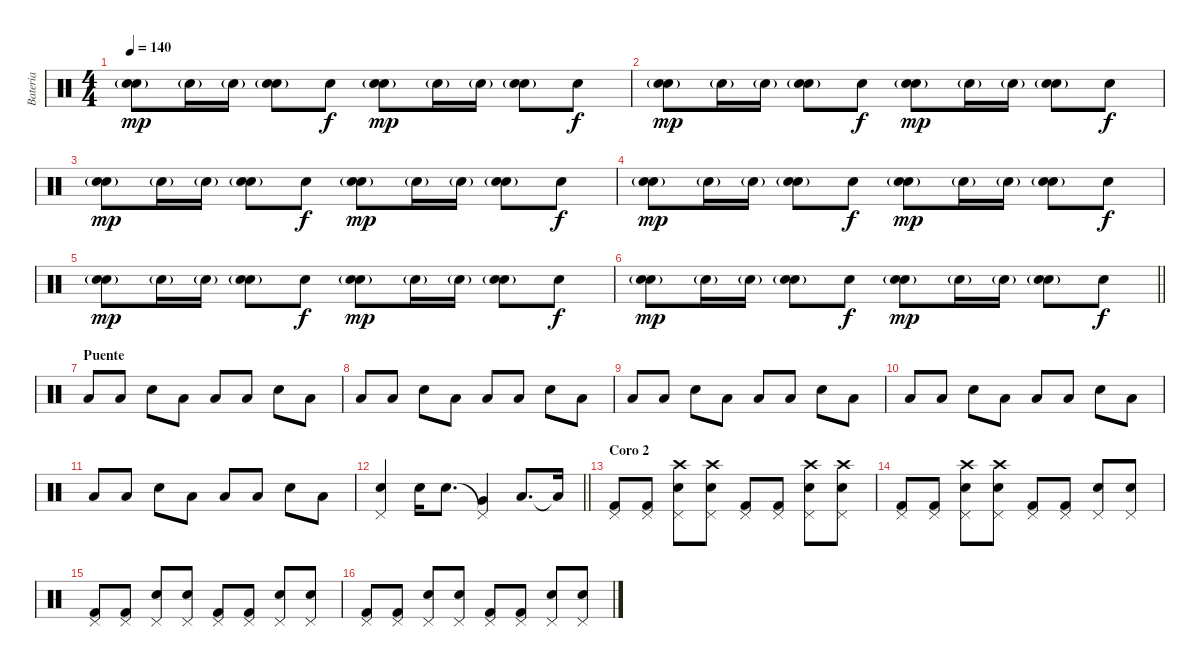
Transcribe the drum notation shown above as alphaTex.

\track ("Bateria" "Bateria") {instrument percussion}
\staff {score}
\articulation defaults
\ts (4 4)
\tempo 140
\clef neutral
\ks c
("Snare (hit) 2" "Electric Snare (hit)"{g}).8{dy mp} "Electric Snare (hit)"{g}.16 "Electric Snare (hit)"{g}.16 ("Snare (hit) 2" "Electric Snare (hit)"{g}).8 "Electric Snare (hit)".8{dy f} ("Snare (hit) 2" "Electric Snare (hit)"{g}).8{dy mp} "Electric Snare (hit)"{g}.16 "Electric Snare (hit)"{g}.16 ("Snare (hit) 2" "Electric Snare (hit)"{g}).8 "Electric Snare (hit)".8{dy f} |
("Snare (hit) 2" "Electric Snare (hit)"{g}).8{dy mp} "Electric Snare (hit)"{g}.16 "Electric Snare (hit)"{g}.16 ("Snare (hit) 2" "Electric Snare (hit)"{g}).8 "Electric Snare (hit)".8{dy f} ("Snare (hit) 2" "Electric Snare (hit)"{g}).8{dy mp} "Electric Snare (hit)"{g}.16 "Electric Snare (hit)"{g}.16 ("Snare (hit) 2" "Electric Snare (hit)"{g}).8 "Electric Snare (hit)".8{dy f} |
("Snare (hit) 2" "Electric Snare (hit)"{g}).8{dy mp} "Electric Snare (hit)"{g}.16 "Electric Snare (hit)"{g}.16 ("Snare (hit) 2" "Electric Snare (hit)"{g}).8 "Electric Snare (hit)".8{dy f} ("Snare (hit) 2" "Electric Snare (hit)"{g}).8{dy mp} "Electric Snare (hit)"{g}.16 "Electric Snare (hit)"{g}.16 ("Snare (hit) 2" "Electric Snare (hit)"{g}).8 "Electric Snare (hit)".8{dy f} |
("Snare (hit) 2" "Electric Snare (hit)"{g}).8{dy mp} "Electric Snare (hit)"{g}.16 "Electric Snare (hit)"{g}.16 ("Snare (hit) 2" "Electric Snare (hit)"{g}).8 "Electric Snare (hit)".8{dy f} ("Snare (hit) 2" "Electric Snare (hit)"{g}).8{dy mp} "Electric Snare (hit)"{g}.16 "Electric Snare (hit)"{g}.16 ("Snare (hit) 2" "Electric Snare (hit)"{g}).8 "Electric Snare (hit)".8{dy f} |
("Snare (hit) 2" "Electric Snare (hit)"{g}).8{dy mp} "Electric Snare (hit)"{g}.16 "Electric Snare (hit)"{g}.16 ("Snare (hit) 2" "Electric Snare (hit)"{g}).8 "Electric Snare (hit)".8{dy f} ("Snare (hit) 2" "Electric Snare (hit)"{g}).8{dy mp} "Electric Snare (hit)"{g}.16 "Electric Snare (hit)"{g}.16 ("Snare (hit) 2" "Electric Snare (hit)"{g}).8 "Electric Snare (hit)".8{dy f} |
\barLineRight lightlight
("Snare (hit) 2" "Electric Snare (hit)"{g}).8{dy mp} "Electric Snare (hit)"{g}.16 "Electric Snare (hit)"{g}.16 ("Snare (hit) 2" "Electric Snare (hit)"{g}).8 "Electric Snare (hit)".8{dy f} ("Snare (hit) 2" "Electric Snare (hit)"{g}).8{dy mp} "Electric Snare (hit)"{g}.16 "Electric Snare (hit)"{g}.16 ("Snare (hit) 2" "Electric Snare (hit)"{g}).8 "Electric Snare (hit)".8{dy f} |
\section ("" "Puente")
"Low Floor Tom (hit)".8 "Low Floor Tom (hit)".8 "Electric Snare (hit)".8 "Low Floor Tom (hit)".8 "Low Floor Tom (hit)".8 "Low Floor Tom (hit)".8 "Electric Snare (hit)".8 "Low Floor Tom (hit)".8 |
"Low Floor Tom (hit)".8 "Low Floor Tom (hit)".8 "Electric Snare (hit)".8 "Low Floor Tom (hit)".8 "Low Floor Tom (hit)".8 "Low Floor Tom (hit)".8 "Electric Snare (hit)".8 "Low Floor Tom (hit)".8 |
"Low Floor Tom (hit)".8 "Low Floor Tom (hit)".8 "Electric Snare (hit)".8 "Low Floor Tom (hit)".8 "Low Floor Tom (hit)".8 "Low Floor Tom (hit)".8 "Electric Snare (hit)".8 "Low Floor Tom (hit)".8 |
"Low Floor Tom (hit)".8 "Low Floor Tom (hit)".8 "Electric Snare (hit)".8 "Low Floor Tom (hit)".8 "Low Floor Tom (hit)".8 "Low Floor Tom (hit)".8 "Electric Snare (hit)".8 "Low Floor Tom (hit)".8 |
"Low Floor Tom (hit)".8 "Low Floor Tom (hit)".8 "Electric Snare (hit)".8 "Low Floor Tom (hit)".8 "Low Floor Tom (hit)".8 "Low Floor Tom (hit)".8 "Electric Snare (hit)".8 "Low Floor Tom (hit)".8 |
\barLineRight lightlight
("Pedal Hi-Hat (hit)" "Electric Snare (hit)").4 "Electric Snare (hit)".16 "Electric Snare (hit)".8{d} ("Pedal Hi-Hat (hit)"{t} "Very Low Tom (hit)").4 "Low Floor Tom (hit)".8{d} "Low Floor Tom (hit)"{t}.16 |
\section ("" "Coro 2")
("Pedal Hi-Hat (hit)" "Kick (hit) 2").8 ("Pedal Hi-Hat (hit)" "Kick (hit) 2").8 ("Crash high (hit)" "Pedal Hi-Hat (hit)" "Electric Snare (hit)").8 ("Crash high (hit)" "Pedal Hi-Hat (hit)" "Electric Snare (hit)").8 ("Pedal Hi-Hat (hit)" "Kick (hit) 2").8 ("Pedal Hi-Hat (hit)" "Kick (hit) 2").8 ("Crash high (hit)" "Pedal Hi-Hat (hit)" "Electric Snare (hit)").8 ("Crash high (hit)" "Pedal Hi-Hat (hit)" "Electric Snare (hit)").8 |
("Pedal Hi-Hat (hit)" "Kick (hit) 2").8 ("Pedal Hi-Hat (hit)" "Kick (hit) 2").8 ("Crash high (hit)" "Pedal Hi-Hat (hit)" "Electric Snare (hit)").8 ("Crash high (hit)" "Pedal Hi-Hat (hit)" "Electric Snare (hit)").8 ("Pedal Hi-Hat (hit)" "Kick (hit) 2").8 ("Pedal Hi-Hat (hit)" "Kick (hit) 2").8 ("Pedal Hi-Hat (hit)" "Electric Snare (hit)").8 ("Pedal Hi-Hat (hit)" "Electric Snare (hit)").8 |
("Pedal Hi-Hat (hit)" "Kick (hit) 2").8 ("Pedal Hi-Hat (hit)" "Kick (hit) 2").8 ("Pedal Hi-Hat (hit)" "Electric Snare (hit)").8 ("Pedal Hi-Hat (hit)" "Electric Snare (hit)").8 ("Pedal Hi-Hat (hit)" "Kick (hit) 2").8 ("Pedal Hi-Hat (hit)" "Kick (hit) 2").8 ("Pedal Hi-Hat (hit)" "Electric Snare (hit)").8 ("Pedal Hi-Hat (hit)" "Electric Snare (hit)").8 |
("Pedal Hi-Hat (hit)" "Kick (hit) 2").8 ("Pedal Hi-Hat (hit)" "Kick (hit) 2").8 ("Pedal Hi-Hat (hit)" "Electric Snare (hit)").8 ("Pedal Hi-Hat (hit)" "Electric Snare (hit)").8 ("Pedal Hi-Hat (hit)" "Kick (hit) 2").8 ("Pedal Hi-Hat (hit)" "Kick (hit) 2").8 ("Pedal Hi-Hat (hit)" "Electric Snare (hit)").8 ("Pedal Hi-Hat (hit)" "Electric Snare (hit)").8
